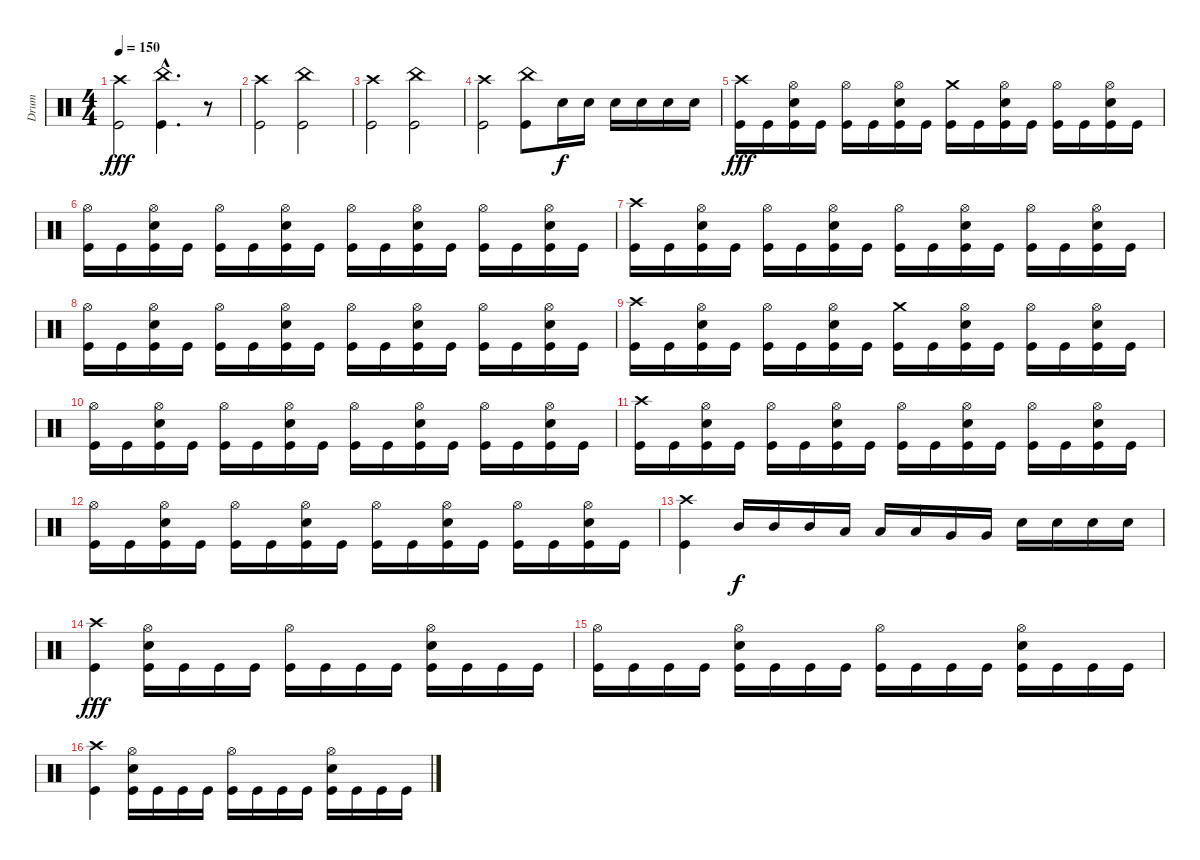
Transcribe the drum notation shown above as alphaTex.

\track ("Drum" "Drum") {instrument percussion}
\staff {score}
\articulation defaults
\ts (4 4)
\tempo 150
\clef neutral
\ks c
("Crash high (hit)" "Kick (hit)").2{dy fff} ("China (hit)"{hac} "Kick (hit)"{hac}).4{d} r.8 |
("Crash high (hit)" "Kick (hit)").2 ("China (hit)" "Kick (hit)").2 |
("Crash high (hit)" "Kick (hit)").2 ("China (hit)" "Kick (hit)").2 |
("Crash high (hit)" "Kick (hit)").2 ("China (hit)" "Kick (hit)").8 "Snare (hit) 2".16{dy f} "Snare (hit) 2".16 "Snare (hit) 2".16 "Snare (hit) 2".16 "Snare (hit) 2".16 "Snare (hit) 2".16 |
("Crash high (hit)" "Kick (hit)").16{dy fff} "Kick (hit)".16 ("Hi-Hat (open)" "Snare (hit) 2" "Kick (hit)").16 "Kick (hit)".16 ("Hi-Hat (open)" "Kick (hit)").16 "Kick (hit)".16 ("Hi-Hat (open)" "Snare (hit) 2" "Kick (hit)").16 "Kick (hit)".16 ("Crash medium (hit)" "Kick (hit)").16 "Kick (hit)".16 ("Hi-Hat (open)" "Snare (hit) 2" "Kick (hit)").16 "Kick (hit)".16 ("Hi-Hat (open)" "Kick (hit)").16 "Kick (hit)".16 ("Hi-Hat (open)" "Snare (hit) 2" "Kick (hit)").16 "Kick (hit)".16 |
("Hi-Hat (open)" "Kick (hit)").16 "Kick (hit)".16 ("Hi-Hat (open)" "Snare (hit) 2" "Kick (hit)").16 "Kick (hit)".16 ("Hi-Hat (open)" "Kick (hit)").16 "Kick (hit)".16 ("Hi-Hat (open)" "Snare (hit) 2" "Kick (hit)").16 "Kick (hit)".16 ("Hi-Hat (open)" "Kick (hit)").16 "Kick (hit)".16 ("Hi-Hat (open)" "Snare (hit) 2" "Kick (hit)").16 "Kick (hit)".16 ("Hi-Hat (open)" "Kick (hit)").16 "Kick (hit)".16 ("Hi-Hat (open)" "Snare (hit) 2" "Kick (hit)").16 "Kick (hit)".16 |
("Crash high (hit)" "Kick (hit)").16 "Kick (hit)".16 ("Hi-Hat (open)" "Snare (hit) 2" "Kick (hit)").16 "Kick (hit)".16 ("Hi-Hat (open)" "Kick (hit)").16 "Kick (hit)".16 ("Hi-Hat (open)" "Snare (hit) 2" "Kick (hit)").16 "Kick (hit)".16 ("Hi-Hat (open)" "Kick (hit)").16 "Kick (hit)".16 ("Hi-Hat (open)" "Snare (hit) 2" "Kick (hit)").16 "Kick (hit)".16 ("Hi-Hat (open)" "Kick (hit)").16 "Kick (hit)".16 ("Hi-Hat (open)" "Snare (hit) 2" "Kick (hit)").16 "Kick (hit)".16 |
("Hi-Hat (open)" "Kick (hit)").16 "Kick (hit)".16 ("Hi-Hat (open)" "Snare (hit) 2" "Kick (hit)").16 "Kick (hit)".16 ("Hi-Hat (open)" "Kick (hit)").16 "Kick (hit)".16 ("Hi-Hat (open)" "Snare (hit) 2" "Kick (hit)").16 "Kick (hit)".16 ("Hi-Hat (open)" "Kick (hit)").16 "Kick (hit)".16 ("Hi-Hat (open)" "Snare (hit) 2" "Kick (hit)").16 "Kick (hit)".16 ("Hi-Hat (open)" "Kick (hit)").16 "Kick (hit)".16 ("Hi-Hat (open)" "Snare (hit) 2" "Kick (hit)").16 "Kick (hit)".16 |
("Crash high (hit)" "Kick (hit)").16 "Kick (hit)".16 ("Hi-Hat (open)" "Snare (hit) 2" "Kick (hit)").16 "Kick (hit)".16 ("Hi-Hat (open)" "Kick (hit)").16 "Kick (hit)".16 ("Hi-Hat (open)" "Snare (hit) 2" "Kick (hit)").16 "Kick (hit)".16 ("Crash medium (hit)" "Kick (hit)").16 "Kick (hit)".16 ("Hi-Hat (open)" "Snare (hit) 2" "Kick (hit)").16 "Kick (hit)".16 ("Hi-Hat (open)" "Kick (hit)").16 "Kick (hit)".16 ("Hi-Hat (open)" "Snare (hit) 2" "Kick (hit)").16 "Kick (hit)".16 |
("Hi-Hat (open)" "Kick (hit)").16 "Kick (hit)".16 ("Hi-Hat (open)" "Snare (hit) 2" "Kick (hit)").16 "Kick (hit)".16 ("Hi-Hat (open)" "Kick (hit)").16 "Kick (hit)".16 ("Hi-Hat (open)" "Snare (hit) 2" "Kick (hit)").16 "Kick (hit)".16 ("Hi-Hat (open)" "Kick (hit)").16 "Kick (hit)".16 ("Hi-Hat (open)" "Snare (hit) 2" "Kick (hit)").16 "Kick (hit)".16 ("Hi-Hat (open)" "Kick (hit)").16 "Kick (hit)".16 ("Hi-Hat (open)" "Snare (hit) 2" "Kick (hit)").16 "Kick (hit)".16 |
("Crash high (hit)" "Kick (hit)").16 "Kick (hit)".16 ("Hi-Hat (open)" "Snare (hit) 2" "Kick (hit)").16 "Kick (hit)".16 ("Hi-Hat (open)" "Kick (hit)").16 "Kick (hit)".16 ("Hi-Hat (open)" "Snare (hit) 2" "Kick (hit)").16 "Kick (hit)".16 ("Hi-Hat (open)" "Kick (hit)").16 "Kick (hit)".16 ("Hi-Hat (open)" "Snare (hit) 2" "Kick (hit)").16 "Kick (hit)".16 ("Hi-Hat (open)" "Kick (hit)").16 "Kick (hit)".16 ("Hi-Hat (open)" "Snare (hit) 2" "Kick (hit)").16 "Kick (hit)".16 |
("Hi-Hat (open)" "Kick (hit)").16 "Kick (hit)".16 ("Hi-Hat (open)" "Snare (hit) 2" "Kick (hit)").16 "Kick (hit)".16 ("Hi-Hat (open)" "Kick (hit)").16 "Kick (hit)".16 ("Hi-Hat (open)" "Snare (hit) 2" "Kick (hit)").16 "Kick (hit)".16 ("Hi-Hat (open)" "Kick (hit)").16 "Kick (hit)".16 ("Hi-Hat (open)" "Snare (hit) 2" "Kick (hit)").16 "Kick (hit)".16 ("Hi-Hat (open)" "Kick (hit)").16 "Kick (hit)".16 ("Hi-Hat (open)" "Snare (hit) 2" "Kick (hit)").16 "Kick (hit)".16 |
("Kick (hit)" "Crash high (hit)").4 "Mid Tom (hit)".16{dy f} "Mid Tom (hit)".16 "Mid Tom (hit)".16 "Low Tom (hit)".16 "Low Tom (hit)".16 "Low Tom (hit)".16 "Very Low Tom (hit)".16 "Very Low Tom (hit)".16 "Snare (hit) 2".16 "Snare (hit) 2".16 "Snare (hit) 2".16 "Snare (hit) 2".16 |
("Crash high (hit)" "Kick (hit)").4{dy fff} ("Hi-Hat (open)" "Snare (hit) 2" "Kick (hit)").16 "Kick (hit)".16 "Kick (hit)".16 "Kick (hit)".16 ("Hi-Hat (open)" "Kick (hit)").16 "Kick (hit)".16 "Kick (hit)".16 "Kick (hit)".16 ("Hi-Hat (open)" "Snare (hit) 2" "Kick (hit)").16 "Kick (hit)".16 "Kick (hit)".16 "Kick (hit)".16 |
("Hi-Hat (open)" "Kick (hit)").16 "Kick (hit)".16 "Kick (hit)".16 "Kick (hit)".16 ("Hi-Hat (open)" "Snare (hit) 2" "Kick (hit)").16 "Kick (hit)".16 "Kick (hit)".16 "Kick (hit)".16 ("Hi-Hat (open)" "Kick (hit)").16 "Kick (hit)".16 "Kick (hit)".16 "Kick (hit)".16 ("Hi-Hat (open)" "Snare (hit) 2" "Kick (hit)").16 "Kick (hit)".16 "Kick (hit)".16 "Kick (hit)".16 |
("Crash high (hit)" "Kick (hit)").4 ("Hi-Hat (open)" "Snare (hit) 2" "Kick (hit)").16 "Kick (hit)".16 "Kick (hit)".16 "Kick (hit)".16 ("Hi-Hat (open)" "Kick (hit)").16 "Kick (hit)".16 "Kick (hit)".16 "Kick (hit)".16 ("Hi-Hat (open)" "Snare (hit) 2" "Kick (hit)").16 "Kick (hit)".16 "Kick (hit)".16 "Kick (hit)".16
